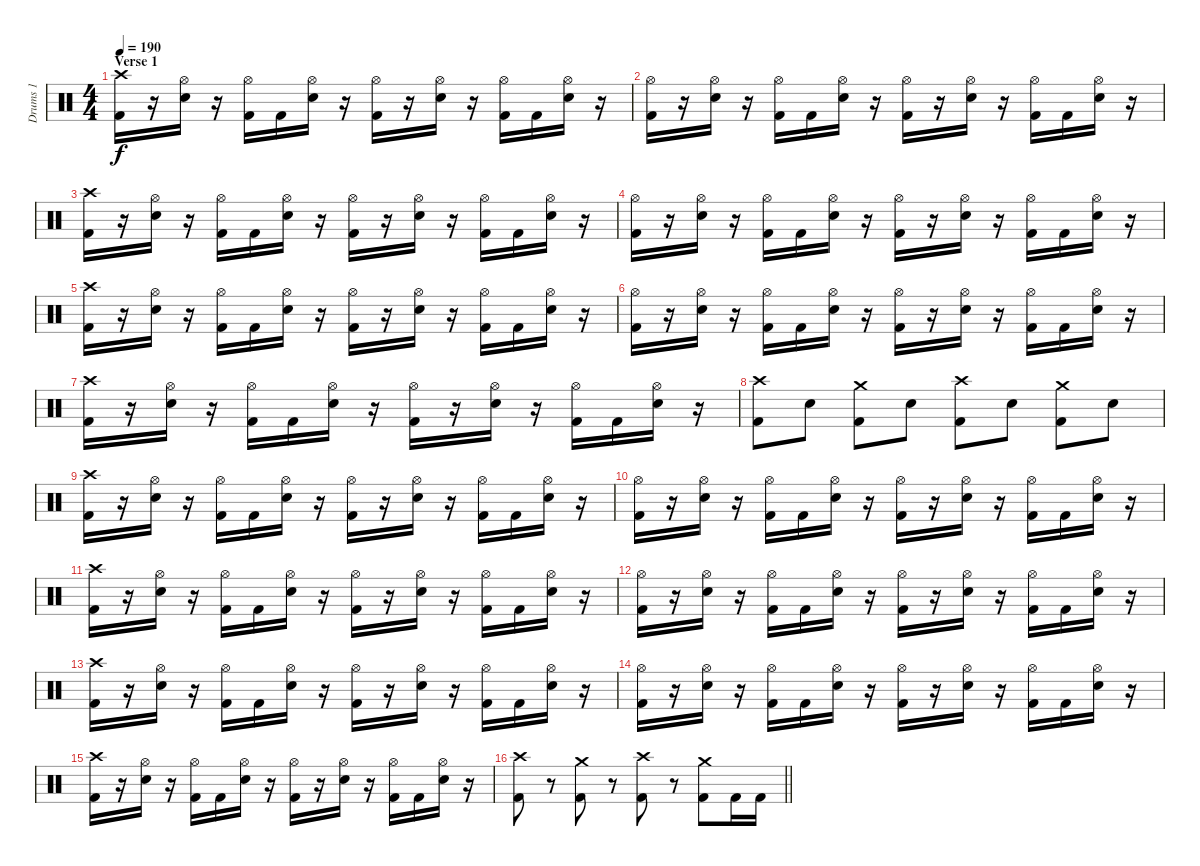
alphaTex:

\track ("Drums 1" "Drums 1") {instrument percussion}
\staff {score}
\articulation defaults
\ts (4 4)
\section ("" "Verse 1")
\tempo 190
\clef neutral
\ks c
("Crash high (hit)" "Kick (hit) 2").16{dy f} r.16 ("Hi-Hat (open)" "Snare (hit) 2").16 r.16 ("Hi-Hat (open)" "Kick (hit) 2").16 "Kick (hit) 2".16 ("Hi-Hat (open)" "Snare (hit) 2").16 r.16 ("Hi-Hat (open)" "Kick (hit) 2").16 r.16 ("Hi-Hat (open)" "Snare (hit) 2").16 r.16 ("Hi-Hat (open)" "Kick (hit) 2").16 "Kick (hit) 2".16 ("Hi-Hat (open)" "Snare (hit) 2").16 r.16 |
("Hi-Hat (open)" "Kick (hit) 2").16 r.16 ("Hi-Hat (open)" "Snare (hit) 2").16 r.16 ("Hi-Hat (open)" "Kick (hit) 2").16 "Kick (hit) 2".16 ("Hi-Hat (open)" "Snare (hit) 2").16 r.16 ("Hi-Hat (open)" "Kick (hit) 2").16 r.16 ("Hi-Hat (open)" "Snare (hit) 2").16 r.16 ("Hi-Hat (open)" "Kick (hit) 2").16 "Kick (hit) 2".16 ("Hi-Hat (open)" "Snare (hit) 2").16 r.16 |
("Crash high (hit)" "Kick (hit) 2").16 r.16 ("Hi-Hat (open)" "Snare (hit) 2").16 r.16 ("Hi-Hat (open)" "Kick (hit) 2").16 "Kick (hit) 2".16 ("Hi-Hat (open)" "Snare (hit) 2").16 r.16 ("Hi-Hat (open)" "Kick (hit) 2").16 r.16 ("Hi-Hat (open)" "Snare (hit) 2").16 r.16 ("Hi-Hat (open)" "Kick (hit) 2").16 "Kick (hit) 2".16 ("Hi-Hat (open)" "Snare (hit) 2").16 r.16 |
("Hi-Hat (open)" "Kick (hit) 2").16 r.16 ("Hi-Hat (open)" "Snare (hit) 2").16 r.16 ("Hi-Hat (open)" "Kick (hit) 2").16 "Kick (hit) 2".16 ("Hi-Hat (open)" "Snare (hit) 2").16 r.16 ("Hi-Hat (open)" "Kick (hit) 2").16 r.16 ("Hi-Hat (open)" "Snare (hit) 2").16 r.16 ("Hi-Hat (open)" "Kick (hit) 2").16 "Kick (hit) 2".16 ("Hi-Hat (open)" "Snare (hit) 2").16 r.16 |
("Crash high (hit)" "Kick (hit) 2").16 r.16 ("Hi-Hat (open)" "Snare (hit) 2").16 r.16 ("Hi-Hat (open)" "Kick (hit) 2").16 "Kick (hit) 2".16 ("Hi-Hat (open)" "Snare (hit) 2").16 r.16 ("Hi-Hat (open)" "Kick (hit) 2").16 r.16 ("Hi-Hat (open)" "Snare (hit) 2").16 r.16 ("Hi-Hat (open)" "Kick (hit) 2").16 "Kick (hit) 2".16 ("Hi-Hat (open)" "Snare (hit) 2").16 r.16 |
("Hi-Hat (open)" "Kick (hit) 2").16 r.16 ("Hi-Hat (open)" "Snare (hit) 2").16 r.16 ("Hi-Hat (open)" "Kick (hit) 2").16 "Kick (hit) 2".16 ("Hi-Hat (open)" "Snare (hit) 2").16 r.16 ("Hi-Hat (open)" "Kick (hit) 2").16 r.16 ("Hi-Hat (open)" "Snare (hit) 2").16 r.16 ("Hi-Hat (open)" "Kick (hit) 2").16 "Kick (hit) 2".16 ("Hi-Hat (open)" "Snare (hit) 2").16 r.16 |
("Crash high (hit)" "Kick (hit) 2").16 r.16 ("Hi-Hat (open)" "Snare (hit) 2").16 r.16 ("Hi-Hat (open)" "Kick (hit) 2").16 "Kick (hit) 2".16 ("Hi-Hat (open)" "Snare (hit) 2").16 r.16 ("Hi-Hat (open)" "Kick (hit) 2").16 r.16 ("Hi-Hat (open)" "Snare (hit) 2").16 r.16 ("Hi-Hat (open)" "Kick (hit) 2").16 "Kick (hit) 2".16 ("Hi-Hat (open)" "Snare (hit) 2").16 r.16 |
("Crash high (hit)" "Kick (hit) 2").8 "Snare (hit) 2".8 ("Crash medium (hit)" "Kick (hit) 2").8 "Snare (hit) 2".8 ("Crash high (hit)" "Kick (hit) 2").8 "Snare (hit) 2".8 ("Crash medium (hit)" "Kick (hit) 2").8 "Snare (hit) 2".8 |
("Crash high (hit)" "Kick (hit) 2").16 r.16 ("Hi-Hat (open)" "Snare (hit) 2").16 r.16 ("Hi-Hat (open)" "Kick (hit) 2").16 "Kick (hit) 2".16 ("Hi-Hat (open)" "Snare (hit) 2").16 r.16 ("Hi-Hat (open)" "Kick (hit) 2").16 r.16 ("Hi-Hat (open)" "Snare (hit) 2").16 r.16 ("Hi-Hat (open)" "Kick (hit) 2").16 "Kick (hit) 2".16 ("Hi-Hat (open)" "Snare (hit) 2").16 r.16 |
("Hi-Hat (open)" "Kick (hit) 2").16 r.16 ("Hi-Hat (open)" "Snare (hit) 2").16 r.16 ("Hi-Hat (open)" "Kick (hit) 2").16 "Kick (hit) 2".16 ("Hi-Hat (open)" "Snare (hit) 2").16 r.16 ("Hi-Hat (open)" "Kick (hit) 2").16 r.16 ("Hi-Hat (open)" "Snare (hit) 2").16 r.16 ("Hi-Hat (open)" "Kick (hit) 2").16 "Kick (hit) 2".16 ("Hi-Hat (open)" "Snare (hit) 2").16 r.16 |
("Crash high (hit)" "Kick (hit) 2").16 r.16 ("Hi-Hat (open)" "Snare (hit) 2").16 r.16 ("Hi-Hat (open)" "Kick (hit) 2").16 "Kick (hit) 2".16 ("Hi-Hat (open)" "Snare (hit) 2").16 r.16 ("Hi-Hat (open)" "Kick (hit) 2").16 r.16 ("Hi-Hat (open)" "Snare (hit) 2").16 r.16 ("Hi-Hat (open)" "Kick (hit) 2").16 "Kick (hit) 2".16 ("Hi-Hat (open)" "Snare (hit) 2").16 r.16 |
("Hi-Hat (open)" "Kick (hit) 2").16 r.16 ("Hi-Hat (open)" "Snare (hit) 2").16 r.16 ("Hi-Hat (open)" "Kick (hit) 2").16 "Kick (hit) 2".16 ("Hi-Hat (open)" "Snare (hit) 2").16 r.16 ("Hi-Hat (open)" "Kick (hit) 2").16 r.16 ("Hi-Hat (open)" "Snare (hit) 2").16 r.16 ("Hi-Hat (open)" "Kick (hit) 2").16 "Kick (hit) 2".16 ("Hi-Hat (open)" "Snare (hit) 2").16 r.16 |
("Crash high (hit)" "Kick (hit) 2").16 r.16 ("Hi-Hat (open)" "Snare (hit) 2").16 r.16 ("Hi-Hat (open)" "Kick (hit) 2").16 "Kick (hit) 2".16 ("Hi-Hat (open)" "Snare (hit) 2").16 r.16 ("Hi-Hat (open)" "Kick (hit) 2").16 r.16 ("Hi-Hat (open)" "Snare (hit) 2").16 r.16 ("Hi-Hat (open)" "Kick (hit) 2").16 "Kick (hit) 2".16 ("Hi-Hat (open)" "Snare (hit) 2").16 r.16 |
("Hi-Hat (open)" "Kick (hit) 2").16 r.16 ("Hi-Hat (open)" "Snare (hit) 2").16 r.16 ("Hi-Hat (open)" "Kick (hit) 2").16 "Kick (hit) 2".16 ("Hi-Hat (open)" "Snare (hit) 2").16 r.16 ("Hi-Hat (open)" "Kick (hit) 2").16 r.16 ("Hi-Hat (open)" "Snare (hit) 2").16 r.16 ("Hi-Hat (open)" "Kick (hit) 2").16 "Kick (hit) 2".16 ("Hi-Hat (open)" "Snare (hit) 2").16 r.16 |
("Crash high (hit)" "Kick (hit) 2").16 r.16 ("Hi-Hat (open)" "Snare (hit) 2").16 r.16 ("Hi-Hat (open)" "Kick (hit) 2").16 "Kick (hit) 2".16 ("Hi-Hat (open)" "Snare (hit) 2").16 r.16 ("Hi-Hat (open)" "Kick (hit) 2").16 r.16 ("Hi-Hat (open)" "Snare (hit) 2").16 r.16 ("Hi-Hat (open)" "Kick (hit) 2").16 "Kick (hit) 2".16 ("Hi-Hat (open)" "Snare (hit) 2").16 r.16 |
\barLineRight lightlight
("Crash high (hit)" "Kick (hit) 2").8 r.8 ("Crash medium (hit)" "Kick (hit) 2").8 r.8 ("Crash high (hit)" "Kick (hit) 2").8 r.8 ("Crash medium (hit)" "Kick (hit) 2").8 "Kick (hit) 2".16 "Kick (hit) 2".16
